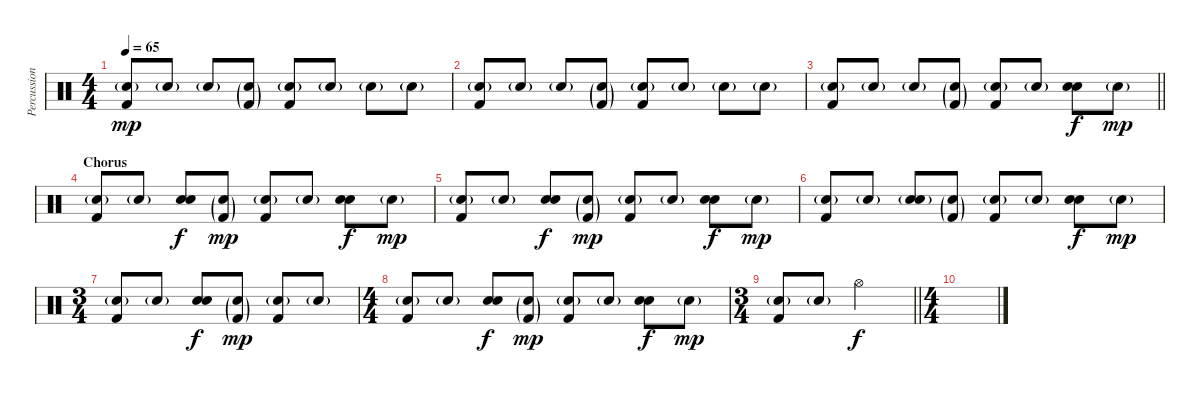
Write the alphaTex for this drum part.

\track ("Percussion" "Percussion") {instrument percussion}
\staff {score}
\articulation defaults
\ts (4 4)
\tempo 65
\clef neutral
\ks c
("Snare (hit) 2"{g} "Kick (hit) 2").8{dy mp} "Snare (hit) 2"{g}.8 "Snare (hit) 2"{g}.8 ("Snare (hit) 2"{g} "Kick (hit) 2"{g}).8 ("Snare (hit) 2"{g} "Kick (hit) 2").8 "Snare (hit) 2"{g}.8 "Snare (hit) 2"{g}.8 "Snare (hit) 2"{g}.8 |
("Snare (hit) 2"{g} "Kick (hit) 2").8 "Snare (hit) 2"{g}.8 "Snare (hit) 2"{g}.8 ("Snare (hit) 2"{g} "Kick (hit) 2"{g}).8 ("Snare (hit) 2"{g} "Kick (hit) 2").8 "Snare (hit) 2"{g}.8 "Snare (hit) 2"{g}.8 "Snare (hit) 2"{g}.8 |
\barLineRight lightlight
("Snare (hit) 2"{g} "Kick (hit) 2").8 "Snare (hit) 2"{g}.8 "Snare (hit) 2"{g}.8 ("Snare (hit) 2"{g} "Kick (hit) 2"{g}).8 ("Snare (hit) 2"{g} "Kick (hit) 2").8 "Snare (hit) 2"{g}.8 ("Hand Clap (hit)" "Snare (hit) 2").8{dy f} "Snare (hit) 2"{g}.8{dy mp} |
\section ("" "Chorus")
("Snare (hit) 2"{g} "Kick (hit) 2").8 "Snare (hit) 2"{g}.8 ("Hand Clap (hit)" "Snare (hit) 2").8{dy f} ("Snare (hit) 2"{g} "Kick (hit) 2"{g}).8{dy mp} ("Snare (hit) 2"{g} "Kick (hit) 2").8 "Snare (hit) 2"{g}.8 ("Hand Clap (hit)" "Snare (hit) 2").8{dy f} "Snare (hit) 2"{g}.8{dy mp} |
("Snare (hit) 2"{g} "Kick (hit) 2").8 "Snare (hit) 2"{g}.8 ("Hand Clap (hit)" "Snare (hit) 2").8{dy f} ("Snare (hit) 2"{g} "Kick (hit) 2"{g}).8{dy mp} ("Snare (hit) 2"{g} "Kick (hit) 2").8 "Snare (hit) 2"{g}.8 ("Hand Clap (hit)" "Snare (hit) 2").8{dy f} "Snare (hit) 2"{g}.8{dy mp} |
("Snare (hit) 2"{g} "Kick (hit) 2").8 "Snare (hit) 2"{g}.8 ("Hand Clap (hit)" "Snare (hit) 2"{g}).8 ("Snare (hit) 2"{g} "Kick (hit) 2"{g}).8 ("Snare (hit) 2"{g} "Kick (hit) 2").8 "Snare (hit) 2"{g}.8 ("Hand Clap (hit)" "Snare (hit) 2").8{dy f} "Snare (hit) 2"{g}.8{dy mp} |
\ts (3 4)
("Snare (hit) 2"{g} "Kick (hit) 2").8 "Snare (hit) 2"{g}.8 ("Hand Clap (hit)" "Snare (hit) 2").8{dy f} ("Snare (hit) 2"{g} "Kick (hit) 2"{g}).8{dy mp} ("Snare (hit) 2"{g} "Kick (hit) 2").8 "Snare (hit) 2"{g}.8 |
\ts (4 4)
("Snare (hit) 2"{g} "Kick (hit) 2").8 "Snare (hit) 2"{g}.8 ("Hand Clap (hit)" "Snare (hit) 2").8{dy f} ("Snare (hit) 2"{g} "Kick (hit) 2"{g}).8{dy mp} ("Snare (hit) 2"{g} "Kick (hit) 2").8 "Snare (hit) 2"{g}.8 ("Hand Clap (hit)" "Snare (hit) 2").8{dy f} "Snare (hit) 2"{g}.8{dy mp} |
\ts (3 4)
\barLineRight lightlight
("Snare (hit) 2"{g} "Kick (hit) 2").8 "Snare (hit) 2"{g}.8 "Hi-Hat (open)".2{dy f} |
\ts (4 4)
